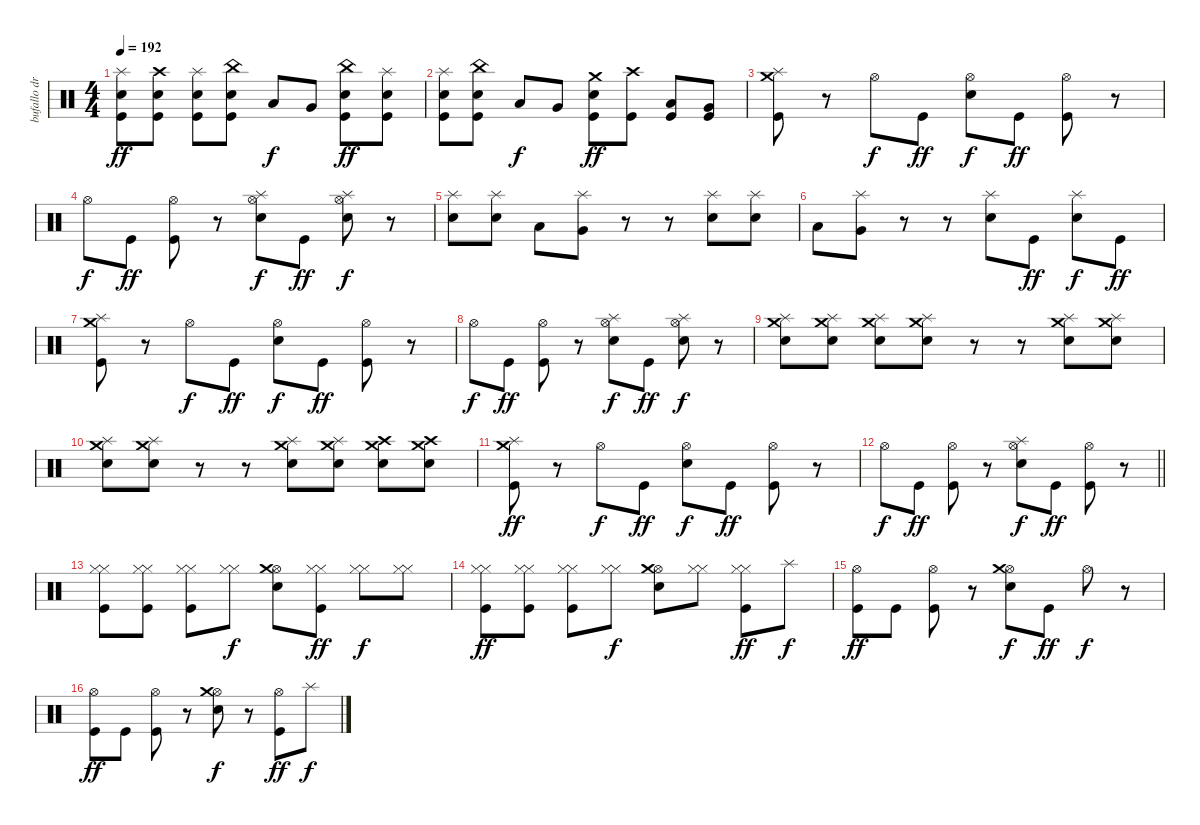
\track ("bufallo drums" "bufallo dr") {instrument percussion}
\staff {score}
\articulation defaults
\ts (4 4)
\tempo 192
\clef neutral
\ks c
("Splash (hit)" "Electric Snare (hit)" "Kick (hit)").8{dy ff} ("Crash high (hit)" "Electric Snare (hit)" "Kick (hit)").8 ("Splash (hit)" "Electric Snare (hit)" "Kick (hit)").8 ("China (hit)" "Electric Snare (hit)" "Kick (hit)").8 "Low Tom (hit)".8{dy f} "Very Low Tom (hit)".8 ("China (hit)" "Electric Snare (hit)" "Kick (hit)").8{dy ff} ("Splash (hit)" "Electric Snare (hit)" "Kick (hit)").8 |
("Splash (hit)" "Electric Snare (hit)" "Kick (hit)").8 ("China (hit)" "Electric Snare (hit)" "Kick (hit)").8 "Low Tom (hit)".8{dy f} "Very Low Tom (hit)".8 ("Crash medium (hit)" "Electric Snare (hit)" "Kick (hit)").8{dy ff} ("Crash high (hit)" "Kick (hit)").8 ("Low Tom (hit)" "Kick (hit)").8 ("Very Low Tom (hit)" "Kick (hit)").8 |
("Crash medium (hit)" "Splash (hit)" "Kick (hit)").8 r.8 "Hi-Hat (open)".8{dy f} "Kick (hit)".8{dy ff} ("Hi-Hat (open)" "Electric Snare (hit)").8{dy f} "Kick (hit)".8{dy ff} ("Hi-Hat (open)" "Kick (hit)").8 r.8 |
"Hi-Hat (open)".8{dy f} "Kick (hit)".8{dy ff} ("Hi-Hat (open)" "Kick (hit)").8 r.8 ("Hi-Hat (open)" "Splash (hit)" "Electric Snare (hit)").8{dy f} "Kick (hit)".8{dy ff} ("Hi-Hat (open)" "Splash (hit)" "Electric Snare (hit)").8{dy f} r.8 |
("Splash (hit)" "Electric Snare (hit)").8 ("Splash (hit)" "Electric Snare (hit)").8 "Low Tom (hit)".8 ("Splash (hit)" "Very Low Tom (hit)").8 r.8 r.8 ("Splash (hit)" "Electric Snare (hit)").8 ("Splash (hit)" "Electric Snare (hit)").8 |
"Low Tom (hit)".8 ("Splash (hit)" "Very Low Tom (hit)").8 r.8 r.8 ("Splash (hit)" "Electric Snare (hit)").8 "Kick (hit)".8{dy ff} ("Splash (hit)" "Electric Snare (hit)").8{dy f} "Kick (hit)".8{dy ff} |
("Crash medium (hit)" "Splash (hit)" "Kick (hit)").8 r.8 "Hi-Hat (open)".8{dy f} "Kick (hit)".8{dy ff} ("Hi-Hat (open)" "Electric Snare (hit)").8{dy f} "Kick (hit)".8{dy ff} ("Hi-Hat (open)" "Kick (hit)").8 r.8 |
"Hi-Hat (open)".8{dy f} "Kick (hit)".8{dy ff} ("Hi-Hat (open)" "Kick (hit)").8 r.8 ("Hi-Hat (open)" "Splash (hit)" "Electric Snare (hit)").8{dy f} "Kick (hit)".8{dy ff} ("Hi-Hat (open)" "Splash (hit)" "Electric Snare (hit)").8{dy f} r.8 |
("Crash medium (hit)" "Splash (hit)" "Electric Snare (hit)").8 ("Crash medium (hit)" "Splash (hit)" "Electric Snare (hit)").8 ("Crash medium (hit)" "Splash (hit)" "Electric Snare (hit)").8 ("Crash medium (hit)" "Splash (hit)" "Electric Snare (hit)").8 r.8 r.8 ("Crash medium (hit)" "Splash (hit)" "Electric Snare (hit)").8 ("Crash medium (hit)" "Splash (hit)" "Electric Snare (hit)").8 |
("Crash medium (hit)" "Splash (hit)" "Electric Snare (hit)").8 ("Crash medium (hit)" "Splash (hit)" "Electric Snare (hit)").8 r.8 r.8 ("Crash medium (hit)" "Splash (hit)" "Electric Snare (hit)").8 ("Crash medium (hit)" "Splash (hit)" "Electric Snare (hit)").8 ("Crash high (hit)" "Crash medium (hit)" "Electric Snare (hit)").8 ("Crash high (hit)" "Crash medium (hit)" "Electric Snare (hit)").8 |
("Crash medium (hit)" "Splash (hit)" "Kick (hit)").8{dy ff} r.8 "Hi-Hat (open)".8{dy f} "Kick (hit)".8{dy ff} ("Hi-Hat (open)" "Electric Snare (hit)").8{dy f} "Kick (hit)".8{dy ff} ("Hi-Hat (open)" "Kick (hit)").8 r.8 |
\barLineRight lightlight "Hi-Hat (open)".8{dy f} "Kick (hit)".8{dy ff}
("Hi-Hat (open)" "Kick (hit)").8 r.8 ("Hi-Hat (open)" "Splash (hit)" "Electric Snare (hit)").8{dy f} "Kick (hit)".8{dy ff} ("Hi-Hat (open)" "Kick (hit)").8 r.8 |
("Hi-Hat (closed)" "Hi-Hat (closed)" "Kick (hit)").8 ("Hi-Hat (closed)" "Hi-Hat (closed)" "Kick (hit)").8 ("Hi-Hat (closed)" "Hi-Hat (closed)" "Kick (hit)").8 ("Hi-Hat (closed)" "Hi-Hat (closed)").8{dy f} ("Hi-Hat (open)" "Crash medium (hit)" "Electric Snare (hit)").8 ("Hi-Hat (closed)" "Hi-Hat (closed)" "Kick (hit)").8{dy ff} ("Hi-Hat (closed)" "Hi-Hat (closed)").8{dy f} ("Hi-Hat (closed)" "Hi-Hat (closed)").8 |
("Hi-Hat (closed)" "Hi-Hat (closed)" "Kick (hit)").8{dy ff} ("Hi-Hat (closed)" "Hi-Hat (closed)" "Kick (hit)").8 ("Hi-Hat (closed)" "Hi-Hat (closed)" "Kick (hit)").8 ("Hi-Hat (closed)" "Hi-Hat (closed)").8{dy f} ("Hi-Hat (open)" "Crash medium (hit)" "Electric Snare (hit)").8 ("Hi-Hat (closed)" "Hi-Hat (closed)").8 ("Hi-Hat (closed)" "Hi-Hat (closed)" "Kick (hit)").8{dy ff} "Splash (hit)".8{dy f} |
("Hi-Hat (open)" "Kick (hit)").8{dy ff} "Kick (hit)".8 ("Hi-Hat (open)" "Kick (hit)").8 r.8 ("Hi-Hat (open)" "Crash medium (hit)" "Electric Snare (hit)").8{dy f} "Kick (hit)".8{dy ff} "Hi-Hat (open)".8{dy f} r.8 |
("Hi-Hat (open)" "Kick (hit)").8{dy ff} "Kick (hit)".8 ("Hi-Hat (open)" "Kick (hit)").8 r.8 ("Hi-Hat (open)" "Crash medium (hit)" "Electric Snare (hit)").8{dy f} r.8 ("Hi-Hat (open)" "Kick (hit)").8{dy ff} "Splash (hit)".8{dy f}
